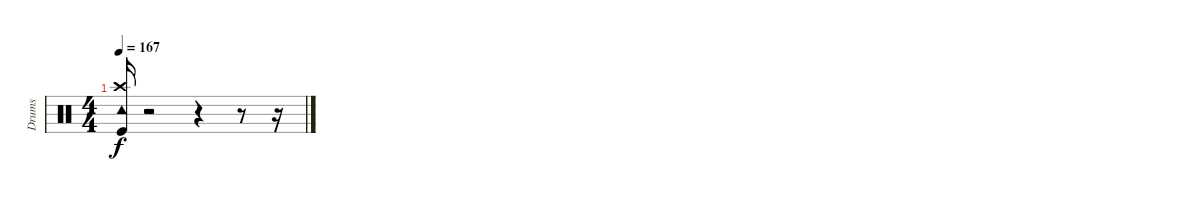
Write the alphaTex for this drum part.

\track ("Drums" "Drums") {instrument percussion}
\staff {score}
\articulation defaults
\ts (4 4)
\tempo 167
\clef neutral
\ks c
("Kick (hit)" "Crash high (hit)" "Tambourine (hit)").16{dy f} r.2 r.4 r.8 r.16
